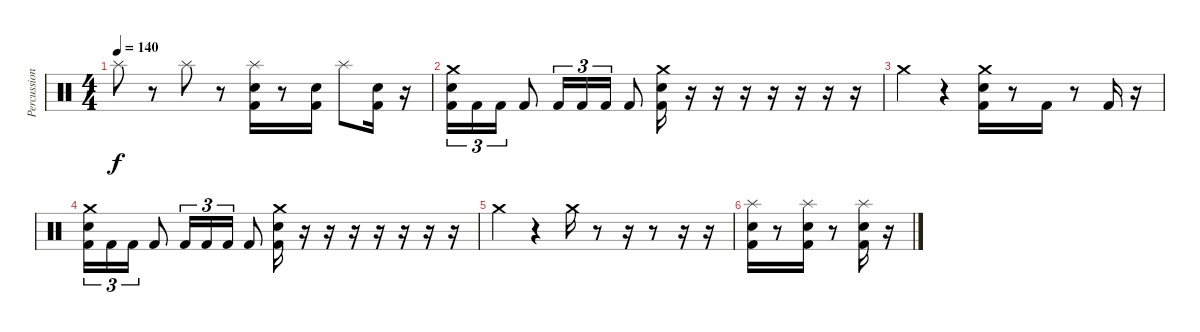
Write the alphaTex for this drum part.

\track ("Percussion" "Percussion") {instrument percussion}
\staff {score}
\articulation defaults
\ts (4 4)
\tempo 140
\clef neutral
\ks c "Splash (hit)".8{dy f}
r.8 "Splash (hit)".8 r.8 ("Splash (hit)" "Snare (hit) 2" "Kick (hit) 2").16 r.8 ("Snare (hit) 2" "Kick (hit) 2").16 "Splash (hit)".8 ("Snare (hit) 2" "Kick (hit) 2").16 r.16 |
("Crash medium (hit)" "Snare (hit) 2" "Kick (hit) 2").16{tu (3 2)} "Kick (hit) 2".16{tu (3 2)} "Kick (hit) 2".16{tu (3 2)} "Kick (hit) 2".8 "Kick (hit) 2".16{tu (3 2)} "Kick (hit) 2".16{tu (3 2)} "Kick (hit) 2".16{tu (3 2)} "Kick (hit) 2".8 ("Crash medium (hit)" "Snare (hit) 2" "Kick (hit) 2").16 r.16 r.16 r.16 r.16 r.16 r.16 r.16 |
"Crash medium (hit)".4 r.4 ("Crash medium (hit)" "Snare (hit) 2" "Kick (hit) 2").16 r.8 "Kick (hit) 2".16 r.8 "Kick (hit) 2".16 r.16 |
("Crash medium (hit)" "Snare (hit) 2" "Kick (hit) 2").16{tu (3 2)} "Kick (hit) 2".16{tu (3 2)} "Kick (hit) 2".16{tu (3 2)} "Kick (hit) 2".8 "Kick (hit) 2".16{tu (3 2)} "Kick (hit) 2".16{tu (3 2)} "Kick (hit) 2".16{tu (3 2)} "Kick (hit) 2".8 ("Crash medium (hit)" "Snare (hit) 2" "Kick (hit) 2").16 r.16 r.16 r.16 r.16 r.16 r.16 r.16 |
"Crash medium (hit)".4 r.4 "Crash medium (hit)".16 r.8 r.16 r.8 r.16 r.16 |
("Splash (hit)" "Snare (hit) 2" "Kick (hit) 2").16 r.8 ("Splash (hit)" "Snare (hit) 2" "Kick (hit) 2").16 r.8 ("Splash (hit)" "Snare (hit) 2" "Kick (hit) 2").16 r.16
